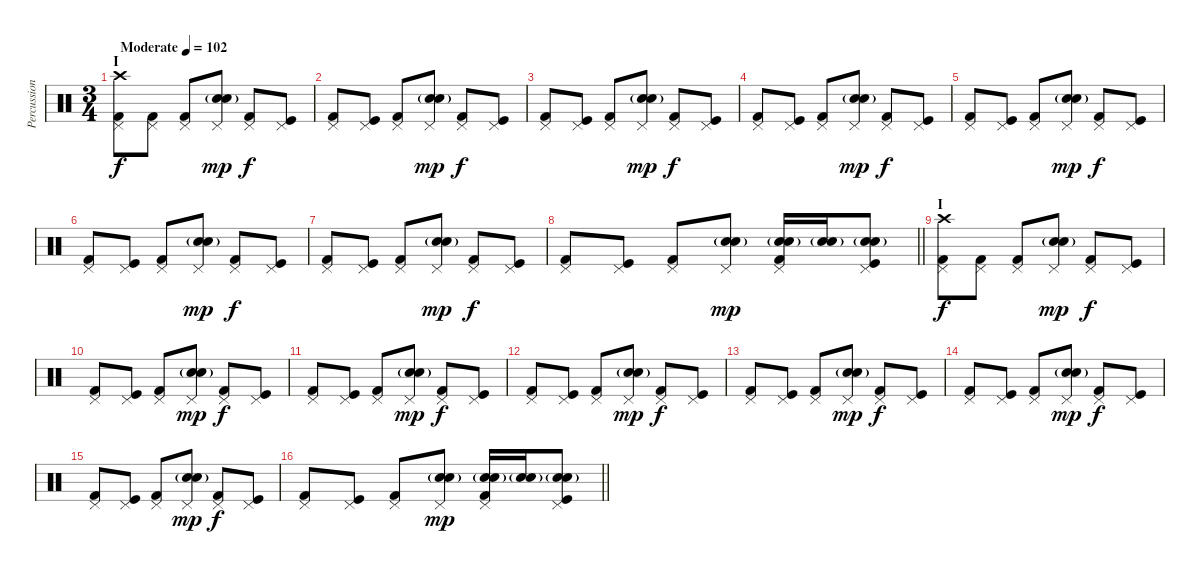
\track ("Percussion" "Percussion") {instrument percussion}
\staff {score}
\articulation defaults
\ts (3 4)
\section ("" "I")
\tempo (102 "Moderate")
\clef neutral
\ks c
("Crash high (hit)" "Kick (hit) 2" "Pedal Hi-Hat (hit)").8{dy f} ("Kick (hit) 2" "Pedal Hi-Hat (hit)").8 ("Kick (hit) 2" "Pedal Hi-Hat (hit)").8 ("Electric Snare (hit)" "Snare (hit) 2"{g} "Pedal Hi-Hat (hit)").8{dy mp} ("Kick (hit) 2" "Pedal Hi-Hat (hit)").8{dy f} ("Kick (hit)" "Pedal Hi-Hat (hit)").8 |
("Kick (hit) 2" "Pedal Hi-Hat (hit)").8 ("Kick (hit)" "Pedal Hi-Hat (hit)").8 ("Kick (hit) 2" "Pedal Hi-Hat (hit)").8 ("Electric Snare (hit)" "Snare (hit) 2"{g} "Pedal Hi-Hat (hit)").8{dy mp} ("Kick (hit) 2" "Pedal Hi-Hat (hit)").8{dy f} ("Kick (hit)" "Pedal Hi-Hat (hit)").8 |
("Kick (hit) 2" "Pedal Hi-Hat (hit)").8 ("Kick (hit)" "Pedal Hi-Hat (hit)").8 ("Kick (hit) 2" "Pedal Hi-Hat (hit)").8 ("Electric Snare (hit)" "Snare (hit) 2"{g} "Pedal Hi-Hat (hit)").8{dy mp} ("Kick (hit) 2" "Pedal Hi-Hat (hit)").8{dy f} ("Kick (hit)" "Pedal Hi-Hat (hit)").8 |
("Kick (hit) 2" "Pedal Hi-Hat (hit)").8 ("Kick (hit)" "Pedal Hi-Hat (hit)").8 ("Kick (hit) 2" "Pedal Hi-Hat (hit)").8 ("Electric Snare (hit)" "Snare (hit) 2"{g} "Pedal Hi-Hat (hit)").8{dy mp} ("Kick (hit) 2" "Pedal Hi-Hat (hit)").8{dy f} ("Kick (hit)" "Pedal Hi-Hat (hit)").8 |
("Kick (hit) 2" "Pedal Hi-Hat (hit)").8 ("Kick (hit)" "Pedal Hi-Hat (hit)").8 ("Kick (hit) 2" "Pedal Hi-Hat (hit)").8 ("Electric Snare (hit)" "Snare (hit) 2"{g} "Pedal Hi-Hat (hit)").8{dy mp} ("Kick (hit) 2" "Pedal Hi-Hat (hit)").8{dy f} ("Kick (hit)" "Pedal Hi-Hat (hit)").8 |
("Kick (hit) 2" "Pedal Hi-Hat (hit)").8 ("Kick (hit)" "Pedal Hi-Hat (hit)").8 ("Kick (hit) 2" "Pedal Hi-Hat (hit)").8 ("Electric Snare (hit)" "Snare (hit) 2"{g} "Pedal Hi-Hat (hit)").8{dy mp} ("Kick (hit) 2" "Pedal Hi-Hat (hit)").8{dy f} ("Kick (hit)" "Pedal Hi-Hat (hit)").8 |
("Kick (hit) 2" "Pedal Hi-Hat (hit)").8 ("Kick (hit)" "Pedal Hi-Hat (hit)").8 ("Kick (hit) 2" "Pedal Hi-Hat (hit)").8 ("Electric Snare (hit)" "Snare (hit) 2"{g} "Pedal Hi-Hat (hit)").8{dy mp} ("Kick (hit) 2" "Pedal Hi-Hat (hit)").8{dy f} ("Kick (hit)" "Pedal Hi-Hat (hit)").8 |
\barLineRight lightlight
("Kick (hit) 2" "Pedal Hi-Hat (hit)").8 ("Kick (hit)" "Pedal Hi-Hat (hit)").8 ("Kick (hit) 2" "Pedal Hi-Hat (hit)").8 ("Electric Snare (hit)" "Snare (hit) 2"{g} "Pedal Hi-Hat (hit)").8{dy mp} ("Electric Snare (hit)" "Snare (hit) 2"{g} "Kick (hit) 2" "Pedal Hi-Hat (hit)").16 ("Electric Snare (hit)" "Snare (hit) 2"{g}).16 ("Electric Snare (hit)" "Snare (hit) 2"{g} "Kick (hit)" "Pedal Hi-Hat (hit)").8 |
\section ("" "I")
("Crash high (hit)" "Kick (hit) 2" "Pedal Hi-Hat (hit)").8{dy f} ("Kick (hit) 2" "Pedal Hi-Hat (hit)").8 ("Kick (hit) 2" "Pedal Hi-Hat (hit)").8 ("Electric Snare (hit)" "Snare (hit) 2"{g} "Pedal Hi-Hat (hit)").8{dy mp} ("Kick (hit) 2" "Pedal Hi-Hat (hit)").8{dy f} ("Kick (hit)" "Pedal Hi-Hat (hit)").8 |
("Kick (hit) 2" "Pedal Hi-Hat (hit)").8 ("Kick (hit)" "Pedal Hi-Hat (hit)").8 ("Kick (hit) 2" "Pedal Hi-Hat (hit)").8 ("Electric Snare (hit)" "Snare (hit) 2"{g} "Pedal Hi-Hat (hit)").8{dy mp} ("Kick (hit) 2" "Pedal Hi-Hat (hit)").8{dy f} ("Kick (hit)" "Pedal Hi-Hat (hit)").8 |
("Kick (hit) 2" "Pedal Hi-Hat (hit)").8 ("Kick (hit)" "Pedal Hi-Hat (hit)").8 ("Kick (hit) 2" "Pedal Hi-Hat (hit)").8 ("Electric Snare (hit)" "Snare (hit) 2"{g} "Pedal Hi-Hat (hit)").8{dy mp} ("Kick (hit) 2" "Pedal Hi-Hat (hit)").8{dy f} ("Kick (hit)" "Pedal Hi-Hat (hit)").8 |
("Kick (hit) 2" "Pedal Hi-Hat (hit)").8 ("Kick (hit)" "Pedal Hi-Hat (hit)").8 ("Kick (hit) 2" "Pedal Hi-Hat (hit)").8 ("Electric Snare (hit)" "Snare (hit) 2"{g} "Pedal Hi-Hat (hit)").8{dy mp} ("Kick (hit) 2" "Pedal Hi-Hat (hit)").8{dy f} ("Kick (hit)" "Pedal Hi-Hat (hit)").8 |
("Kick (hit) 2" "Pedal Hi-Hat (hit)").8 ("Kick (hit)" "Pedal Hi-Hat (hit)").8 ("Kick (hit) 2" "Pedal Hi-Hat (hit)").8 ("Electric Snare (hit)" "Snare (hit) 2"{g} "Pedal Hi-Hat (hit)").8{dy mp} ("Kick (hit) 2" "Pedal Hi-Hat (hit)").8{dy f} ("Kick (hit)" "Pedal Hi-Hat (hit)").8 |
("Kick (hit) 2" "Pedal Hi-Hat (hit)").8 ("Kick (hit)" "Pedal Hi-Hat (hit)").8 ("Kick (hit) 2" "Pedal Hi-Hat (hit)").8 ("Electric Snare (hit)" "Snare (hit) 2"{g} "Pedal Hi-Hat (hit)").8{dy mp} ("Kick (hit) 2" "Pedal Hi-Hat (hit)").8{dy f} ("Kick (hit)" "Pedal Hi-Hat (hit)").8 |
("Kick (hit) 2" "Pedal Hi-Hat (hit)").8 ("Kick (hit)" "Pedal Hi-Hat (hit)").8 ("Kick (hit) 2" "Pedal Hi-Hat (hit)").8 ("Electric Snare (hit)" "Snare (hit) 2"{g} "Pedal Hi-Hat (hit)").8{dy mp} ("Kick (hit) 2" "Pedal Hi-Hat (hit)").8{dy f} ("Kick (hit)" "Pedal Hi-Hat (hit)").8 |
\barLineRight lightlight
("Kick (hit) 2" "Pedal Hi-Hat (hit)").8 ("Kick (hit)" "Pedal Hi-Hat (hit)").8 ("Kick (hit) 2" "Pedal Hi-Hat (hit)").8 ("Electric Snare (hit)" "Snare (hit) 2"{g} "Pedal Hi-Hat (hit)").8{dy mp} ("Electric Snare (hit)" "Snare (hit) 2"{g} "Kick (hit) 2" "Pedal Hi-Hat (hit)").16 ("Electric Snare (hit)" "Snare (hit) 2"{g}).16 ("Electric Snare (hit)" "Snare (hit) 2"{g} "Kick (hit)" "Pedal Hi-Hat (hit)").8
